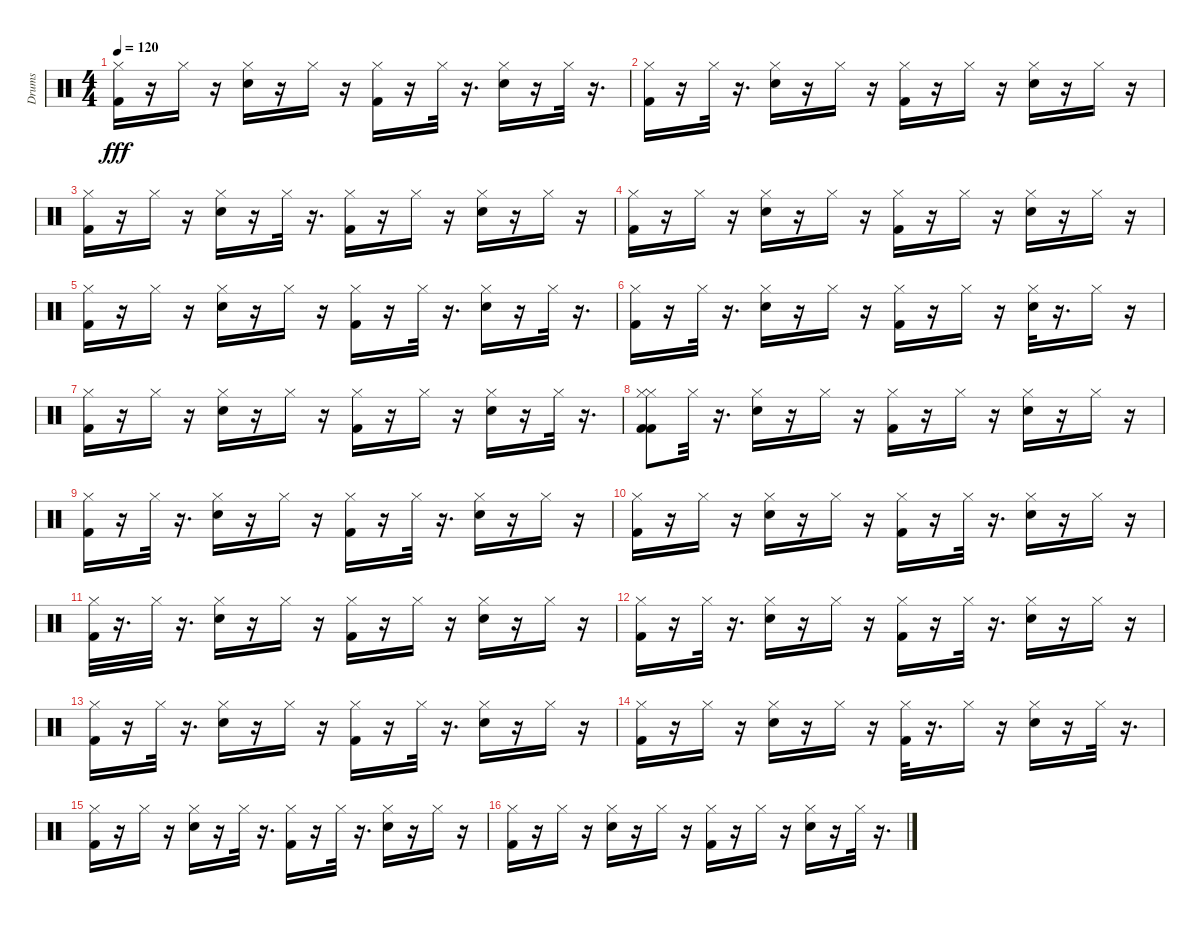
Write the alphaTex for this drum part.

\track ("Drums" "Drums") {instrument percussion}
\staff {score}
\articulation defaults
\ts (4 4)
\tempo 120
\clef neutral
\ks c
("Hi-Hat (closed)" "Kick (hit) 2").16{dy fff} r.16 "Hi-Hat (closed)".16 r.16 ("Snare (hit) 2" "Hi-Hat (closed)").16 r.16 "Hi-Hat (closed)".16 r.16 ("Hi-Hat (closed)" "Kick (hit) 2").16 r.16 "Hi-Hat (closed)".32 r.16{d} ("Snare (hit) 2" "Hi-Hat (closed)").16 r.16 "Hi-Hat (closed)".32 r.16{d} |
("Hi-Hat (closed)" "Kick (hit) 2").16 r.16 "Hi-Hat (closed)".32 r.16{d} ("Snare (hit) 2" "Hi-Hat (closed)").16 r.16 "Hi-Hat (closed)".16 r.16 ("Hi-Hat (closed)" "Kick (hit) 2").16 r.16 "Hi-Hat (closed)".16 r.16 ("Snare (hit) 2" "Hi-Hat (closed)").16 r.16 "Hi-Hat (closed)".16 r.16 |
("Hi-Hat (closed)" "Kick (hit) 2").16 r.16 "Hi-Hat (closed)".16 r.16 ("Snare (hit) 2" "Hi-Hat (closed)").16 r.16 "Hi-Hat (closed)".32 r.16{d} ("Hi-Hat (closed)" "Kick (hit) 2").16 r.16 "Hi-Hat (closed)".16 r.16 ("Snare (hit) 2" "Hi-Hat (closed)").16 r.16 "Hi-Hat (closed)".16 r.16 |
("Hi-Hat (closed)" "Kick (hit) 2").16 r.16 "Hi-Hat (closed)".16 r.16 ("Snare (hit) 2" "Hi-Hat (closed)").16 r.16 "Hi-Hat (closed)".16 r.16 ("Hi-Hat (closed)" "Kick (hit) 2").16 r.16 "Hi-Hat (closed)".16 r.16 ("Snare (hit) 2" "Hi-Hat (closed)").16 r.16 "Hi-Hat (closed)".16 r.16 |
("Hi-Hat (closed)" "Kick (hit) 2").16 r.16 "Hi-Hat (closed)".16 r.16 ("Snare (hit) 2" "Hi-Hat (closed)").16 r.16 "Hi-Hat (closed)".16 r.16 ("Hi-Hat (closed)" "Kick (hit) 2").16 r.16 "Hi-Hat (closed)".32 r.16{d} ("Snare (hit) 2" "Hi-Hat (closed)").16 r.16 "Hi-Hat (closed)".32 r.16{d} |
("Hi-Hat (closed)" "Kick (hit) 2").16 r.16 "Hi-Hat (closed)".32 r.16{d} ("Snare (hit) 2" "Hi-Hat (closed)").16 r.16 "Hi-Hat (closed)".16 r.16 ("Kick (hit) 2" "Hi-Hat (closed)").16 r.16 "Hi-Hat (closed)".16 r.16 ("Snare (hit) 2" "Hi-Hat (closed)").32 r.16{d} "Hi-Hat (closed)".16 r.16 |
("Hi-Hat (closed)" "Kick (hit) 2").16 r.16 "Hi-Hat (closed)".16 r.16 ("Snare (hit) 2" "Hi-Hat (closed)").16 r.16 "Hi-Hat (closed)".16 r.16 ("Hi-Hat (closed)" "Kick (hit) 2").16 r.16 "Hi-Hat (closed)".16 r.16 ("Snare (hit) 2" "Hi-Hat (closed)").16 r.16 "Hi-Hat (closed)".32 r.16{d} |
("Hi-Hat (closed)" "Kick (hit) 2" "Hi-Hat (closed)" "Kick (hit) 2").8 "Hi-Hat (closed)".32 r.16{d} ("Snare (hit) 2" "Hi-Hat (closed)").16 r.16 "Hi-Hat (closed)".16 r.16 ("Hi-Hat (closed)" "Kick (hit) 2").16 r.16 "Hi-Hat (closed)".16 r.16 ("Snare (hit) 2" "Hi-Hat (closed)").16 r.16 "Hi-Hat (closed)".16 r.16 |
("Hi-Hat (closed)" "Kick (hit) 2").16 r.16 "Hi-Hat (closed)".32 r.16{d} ("Snare (hit) 2" "Hi-Hat (closed)").16 r.16 "Hi-Hat (closed)".16 r.16 ("Hi-Hat (closed)" "Kick (hit) 2").16 r.16 "Hi-Hat (closed)".32 r.16{d} ("Snare (hit) 2" "Hi-Hat (closed)").16 r.16 "Hi-Hat (closed)".16 r.16 |
("Hi-Hat (closed)" "Kick (hit) 2").16 r.16 "Hi-Hat (closed)".16 r.16 ("Snare (hit) 2" "Hi-Hat (closed)").16 r.16 "Hi-Hat (closed)".16 r.16 ("Hi-Hat (closed)" "Kick (hit) 2").16 r.16 "Hi-Hat (closed)".32 r.16{d} ("Snare (hit) 2" "Hi-Hat (closed)").16 r.16 "Hi-Hat (closed)".16 r.16 |
("Hi-Hat (closed)" "Kick (hit) 2").32 r.16{d} "Hi-Hat (closed)".32 r.16{d} ("Snare (hit) 2" "Hi-Hat (closed)").16 r.16 "Hi-Hat (closed)".16 r.16 ("Hi-Hat (closed)" "Kick (hit) 2").16 r.16 "Hi-Hat (closed)".16 r.16 ("Snare (hit) 2" "Hi-Hat (closed)").16 r.16 "Hi-Hat (closed)".16 r.16 |
("Hi-Hat (closed)" "Kick (hit) 2").16 r.16 "Hi-Hat (closed)".32 r.16{d} ("Snare (hit) 2" "Hi-Hat (closed)").16 r.16 "Hi-Hat (closed)".16 r.16 ("Hi-Hat (closed)" "Kick (hit) 2").16 r.16 "Hi-Hat (closed)".32 r.16{d} ("Snare (hit) 2" "Hi-Hat (closed)").16 r.16 "Hi-Hat (closed)".16 r.16 |
("Hi-Hat (closed)" "Kick (hit) 2").16 r.16 "Hi-Hat (closed)".32 r.16{d} ("Snare (hit) 2" "Hi-Hat (closed)").16 r.16 "Hi-Hat (closed)".16 r.16 ("Hi-Hat (closed)" "Kick (hit) 2").16 r.16 "Hi-Hat (closed)".32 r.16{d} ("Snare (hit) 2" "Hi-Hat (closed)").16 r.16 "Hi-Hat (closed)".16 r.16 |
("Hi-Hat (closed)" "Kick (hit) 2").16 r.16 "Hi-Hat (closed)".16 r.16 ("Snare (hit) 2" "Hi-Hat (closed)").16 r.16 "Hi-Hat (closed)".16 r.16 ("Hi-Hat (closed)" "Kick (hit) 2").32 r.16{d} "Hi-Hat (closed)".16 r.16 ("Snare (hit) 2" "Hi-Hat (closed)").16 r.16 "Hi-Hat (closed)".32 r.16{d} |
("Hi-Hat (closed)" "Kick (hit) 2").16 r.16 "Hi-Hat (closed)".16 r.16 ("Snare (hit) 2" "Hi-Hat (closed)").16 r.16 "Hi-Hat (closed)".32 r.16{d} ("Hi-Hat (closed)" "Kick (hit) 2").16 r.16 "Hi-Hat (closed)".32 r.16{d} ("Snare (hit) 2" "Hi-Hat (closed)").16 r.16 "Hi-Hat (closed)".16 r.16 |
("Hi-Hat (closed)" "Kick (hit) 2").16 r.16 "Hi-Hat (closed)".16 r.16 ("Snare (hit) 2" "Hi-Hat (closed)").16 r.16 "Hi-Hat (closed)".16 r.16 ("Hi-Hat (closed)" "Kick (hit) 2").16 r.16 "Hi-Hat (closed)".16 r.16 ("Snare (hit) 2" "Hi-Hat (closed)").16 r.16 "Hi-Hat (closed)".32 r.16{d}
